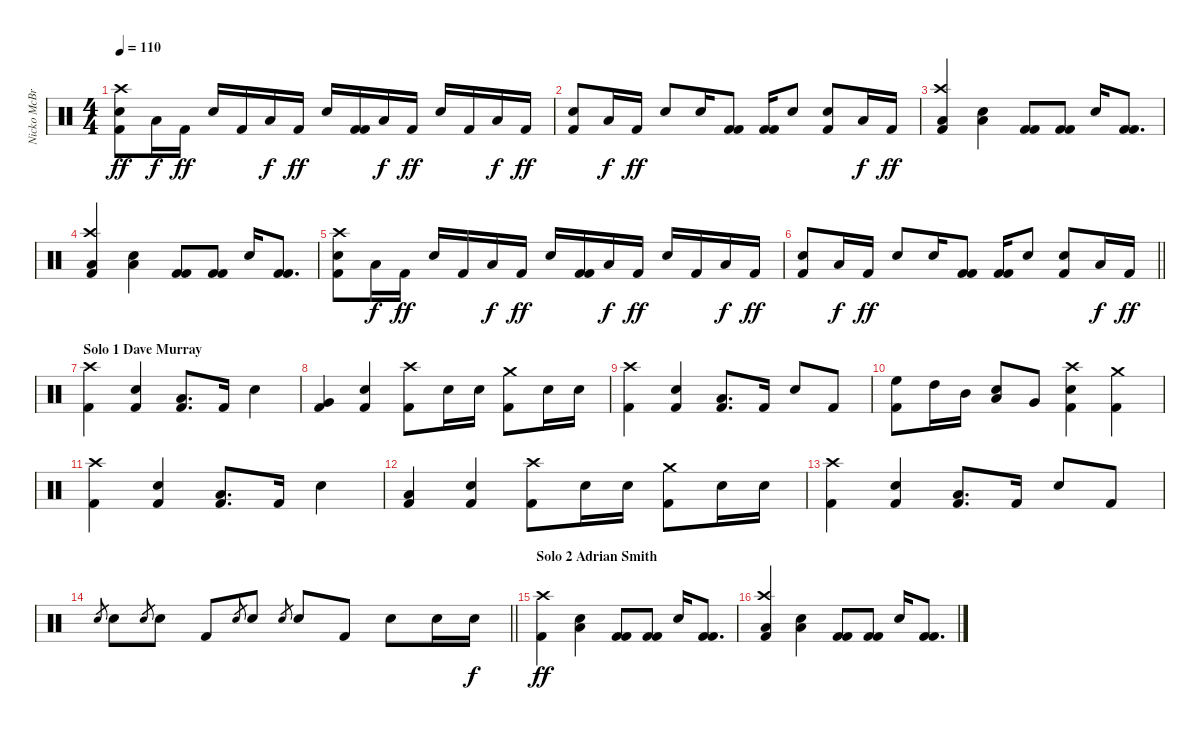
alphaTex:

\track ("Nicko McBrain" "Nicko McBr") {instrument percussion}
\staff {score}
\articulation defaults
\ts (4 4)
\tempo 110
\clef neutral
\ks c
("Snare (hit) 2" "Kick (hit) 2" "Crash high (hit)").8{dy ff} "Low Floor Tom (hit)".16{dy f} "Kick (hit) 2".16{dy ff} "Snare (hit) 2".16 "Kick (hit) 2".16 "Low Floor Tom (hit)".16{dy f} "Kick (hit) 2".16{dy ff} "Snare (hit) 2".16 ("Kick (hit) 2" "Kick (hit) 2").16 "Low Floor Tom (hit)".16{dy f} "Kick (hit) 2".16{dy ff} "Snare (hit) 2".16 "Kick (hit) 2".16 "Low Floor Tom (hit)".16{dy f} "Kick (hit) 2".16{dy ff} |
("Snare (hit) 2" "Kick (hit) 2").8 "Low Floor Tom (hit)".16{dy f} "Kick (hit) 2".16{dy ff} "Snare (hit) 2".8 "Snare (hit) 2".16 ("Kick (hit) 2" "Kick (hit) 2").8 ("Kick (hit) 2" "Kick (hit) 2").16 "Snare (hit) 2".8 ("Snare (hit) 2" "Kick (hit) 2").8 "Low Floor Tom (hit)".16{dy f} "Kick (hit) 2".16{dy ff} |
("Crash high (hit)" "Low Floor Tom (hit)" "Kick (hit) 2").4 ("Snare (hit) 2" "Low Floor Tom (hit)").4 ("Kick (hit) 2" "Kick (hit) 2").8 ("Kick (hit) 2" "Kick (hit) 2").8 "Snare (hit) 2".16 ("Kick (hit) 2" "Kick (hit) 2").8{d} |
("Crash high (hit)" "Low Floor Tom (hit)" "Kick (hit) 2").4 ("Snare (hit) 2" "Low Floor Tom (hit)").4 ("Kick (hit) 2" "Kick (hit) 2").8 ("Kick (hit) 2" "Kick (hit) 2").8 "Snare (hit) 2".16 ("Kick (hit) 2" "Kick (hit) 2").8{d} |
("Snare (hit) 2" "Kick (hit) 2" "Crash high (hit)").8 "Low Floor Tom (hit)".16{dy f} "Kick (hit) 2".16{dy ff} "Snare (hit) 2".16 "Kick (hit) 2".16 "Low Floor Tom (hit)".16{dy f} "Kick (hit) 2".16{dy ff} "Snare (hit) 2".16 ("Kick (hit) 2" "Kick (hit) 2").16 "Low Floor Tom (hit)".16{dy f} "Kick (hit) 2".16{dy ff} "Snare (hit) 2".16 "Kick (hit) 2".16 "Low Floor Tom (hit)".16{dy f} "Kick (hit) 2".16{dy ff} |
\barLineRight lightlight
("Snare (hit) 2" "Kick (hit) 2").8 "Low Floor Tom (hit)".16{dy f} "Kick (hit) 2".16{dy ff} "Snare (hit) 2".8 "Snare (hit) 2".16 ("Kick (hit) 2" "Kick (hit) 2").8 ("Kick (hit) 2" "Kick (hit) 2").16 "Snare (hit) 2".8 ("Snare (hit) 2" "Kick (hit) 2").8 "Low Floor Tom (hit)".16{dy f} "Kick (hit) 2".16{dy ff} |
\section ("" "Solo 1 Dave Murray")
("Crash high (hit)" "Kick (hit) 2").4 ("Snare (hit) 2" "Kick (hit) 2").4 ("Low Floor Tom (hit)" "Kick (hit) 2").8{d} "Kick (hit) 2".16 "Snare (hit) 2".4 |
("Very Low Tom (hit)" "Kick (hit) 2").4 ("Snare (hit) 2" "Kick (hit) 2").4 ("Kick (hit) 2" "Crash high (hit)").8 "Snare (hit) 2".16 "Snare (hit) 2".16 ("Kick (hit) 2" "Crash medium (hit)").8 "Snare (hit) 2".16 "Snare (hit) 2".16 |
("Crash high (hit)" "Kick (hit) 2").4 ("Snare (hit) 2" "Kick (hit) 2").4 ("Low Floor Tom (hit)" "Kick (hit) 2").8{d} "Kick (hit) 2".16 "Snare (hit) 2".8 "Kick (hit) 2".8 |
("High Floor Tom (hit)" "Kick (hit) 2").8 "High Tom (hit)".16 "Mid Tom (hit)".16 ("Snare (hit) 2" "Low Tom (hit)").8 "Very Low Tom (hit)".8 ("Snare (hit) 2" "Crash high (hit)" "Kick (hit) 2").4 ("Crash medium (hit)" "Kick (hit) 2").4 |
("Crash high (hit)" "Kick (hit) 2").4 ("Snare (hit) 2" "Kick (hit) 2").4 ("Low Floor Tom (hit)" "Kick (hit) 2").8{d} "Kick (hit) 2".16 "Snare (hit) 2".4 |
("Low Floor Tom (hit)" "Kick (hit) 2").4 ("Snare (hit) 2" "Kick (hit) 2").4 ("Kick (hit) 2" "Crash high (hit)").8 "Snare (hit) 2".16 "Snare (hit) 2".16 ("Kick (hit) 2" "Crash medium (hit)").8 "Snare (hit) 2".16 "Snare (hit) 2".16 |
("Crash high (hit)" "Kick (hit) 2").4 ("Snare (hit) 2" "Kick (hit) 2").4 ("Low Floor Tom (hit)" "Kick (hit) 2").8{d} "Kick (hit) 2".16 "Snare (hit) 2".8 "Kick (hit) 2".8 |
\barLineRight lightlight "Snare (hit) 2".8{gr} "Snare (hit) 2".8 "Snare (hit) 2".8{gr} "Snare (hit) 2".8 "Kick (hit) 2".8 "Snare (hit) 2".8{gr} "Snare (hit) 2".8 "Snare (hit) 2".8{gr} "Snare (hit) 2".8 "Kick (hit) 2".8 "Snare (hit) 2".8 "Snare (hit) 2".16 "Snare (hit) 2".16{dy f}
|
\section ("" "Solo 2 Adrian Smith")
("Crash high (hit)" "Kick (hit) 2").4{dy ff} ("Snare (hit) 2" "Low Floor Tom (hit)").4 ("Kick (hit) 2" "Kick (hit) 2").8 ("Kick (hit) 2" "Kick (hit) 2").8 "Snare (hit) 2".16 ("Kick (hit) 2" "Kick (hit) 2").8{d} |
("Crash high (hit)" "Low Floor Tom (hit)" "Kick (hit) 2").4 ("Snare (hit) 2" "Low Floor Tom (hit)").4 ("Kick (hit) 2" "Kick (hit) 2").8 ("Kick (hit) 2" "Kick (hit) 2").8 "Snare (hit) 2".16 ("Kick (hit) 2" "Kick (hit) 2").8{d}
